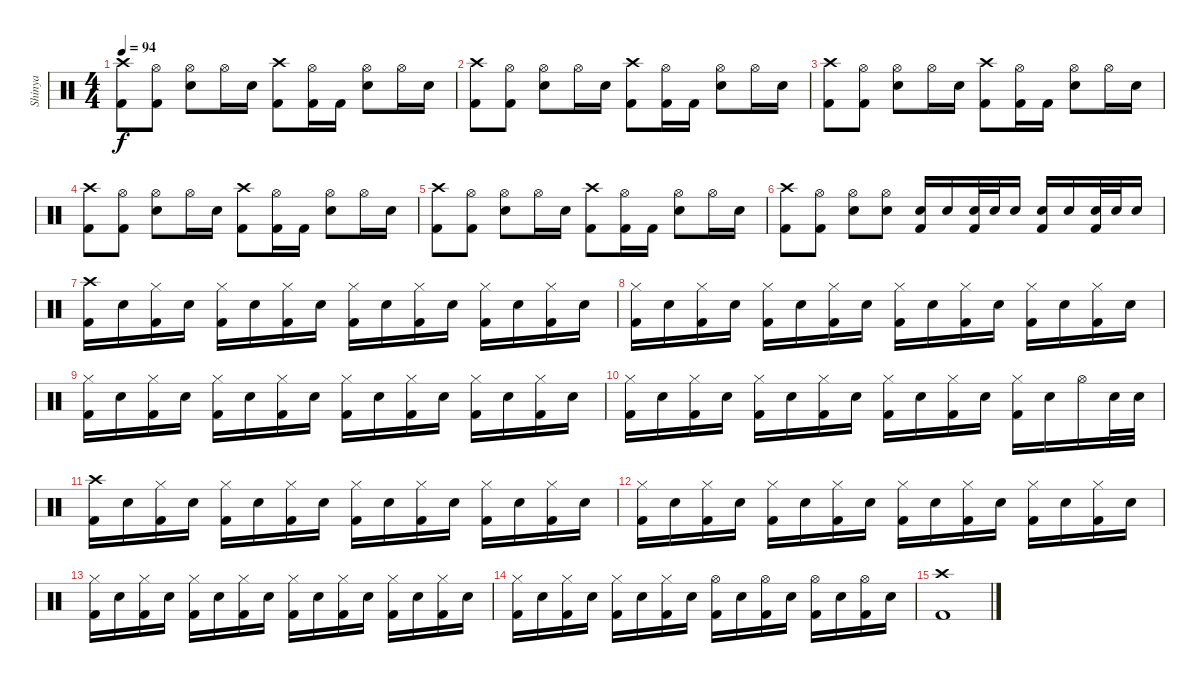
\track ("Shinya" "Shinya") {instrument percussion}
\staff {score}
\articulation defaults
\ts (4 4)
\tempo 94
\clef neutral
\ks c
("Kick (hit) 2" "Crash high (hit)").8{dy f} ("Kick (hit) 2" "Hi-Hat (open)").8 ("Snare (hit) 2" "Hi-Hat (open)").8 "Hi-Hat (open)".16 "Snare (hit) 2".16 ("Crash high (hit)" "Kick (hit) 2").8 ("Hi-Hat (open)" "Kick (hit) 2").16 "Kick (hit) 2".16 ("Hi-Hat (open)" "Snare (hit) 2").8 "Hi-Hat (open)".16 "Snare (hit) 2".16 |
("Kick (hit) 2" "Crash high (hit)").8 ("Kick (hit) 2" "Hi-Hat (open)").8 ("Snare (hit) 2" "Hi-Hat (open)").8 "Hi-Hat (open)".16 "Snare (hit) 2".16 ("Crash high (hit)" "Kick (hit) 2").8 ("Hi-Hat (open)" "Kick (hit) 2").16 "Kick (hit) 2".16 ("Hi-Hat (open)" "Snare (hit) 2").8 "Hi-Hat (open)".16 "Snare (hit) 2".16 |
("Kick (hit) 2" "Crash high (hit)").8 ("Kick (hit) 2" "Hi-Hat (open)").8 ("Snare (hit) 2" "Hi-Hat (open)").8 "Hi-Hat (open)".16 "Snare (hit) 2".16 ("Crash high (hit)" "Kick (hit) 2").8 ("Hi-Hat (open)" "Kick (hit) 2").16 "Kick (hit) 2".16 ("Hi-Hat (open)" "Snare (hit) 2").8 "Hi-Hat (open)".16 "Snare (hit) 2".16 |
("Kick (hit) 2" "Crash high (hit)").8 ("Kick (hit) 2" "Hi-Hat (open)").8 ("Snare (hit) 2" "Hi-Hat (open)").8 "Hi-Hat (open)".16 "Snare (hit) 2".16 ("Crash high (hit)" "Kick (hit) 2").8 ("Hi-Hat (open)" "Kick (hit) 2").16 "Kick (hit) 2".16 ("Hi-Hat (open)" "Snare (hit) 2").8 "Hi-Hat (open)".16 "Snare (hit) 2".16 |
("Kick (hit) 2" "Crash high (hit)").8 ("Kick (hit) 2" "Hi-Hat (open)").8 ("Snare (hit) 2" "Hi-Hat (open)").8 "Hi-Hat (open)".16 "Snare (hit) 2".16 ("Crash high (hit)" "Kick (hit) 2").8 ("Hi-Hat (open)" "Kick (hit) 2").16 "Kick (hit) 2".16 ("Hi-Hat (open)" "Snare (hit) 2").8 "Hi-Hat (open)".16 "Snare (hit) 2".16 |
("Kick (hit) 2" "Crash high (hit)").8 ("Kick (hit) 2" "Hi-Hat (open)").8 ("Snare (hit) 2" "Hi-Hat (open)").8 ("Hi-Hat (open)" "Snare (hit) 2").8 ("Snare (hit) 2" "Kick (hit) 2").16 "Snare (hit) 2".16 ("Snare (hit) 2" "Kick (hit) 2").32 "Snare (hit) 2".32 "Snare (hit) 2".16 ("Snare (hit) 2" "Kick (hit) 2").16 "Snare (hit) 2".16 ("Snare (hit) 2" "Kick (hit) 2").32 "Snare (hit) 2".32 "Snare (hit) 2".16 |
("Crash high (hit)" "Kick (hit) 2").16 "Snare (hit) 2".16 ("Hi-Hat (closed)" "Kick (hit) 2").16 "Snare (hit) 2".16 ("Hi-Hat (closed)" "Kick (hit) 2").16 "Snare (hit) 2".16 ("Hi-Hat (closed)" "Kick (hit) 2").16 "Snare (hit) 2".16 ("Hi-Hat (closed)" "Kick (hit) 2").16 "Snare (hit) 2".16 ("Hi-Hat (closed)" "Kick (hit) 2").16 "Snare (hit) 2".16 ("Hi-Hat (closed)" "Kick (hit) 2").16 "Snare (hit) 2".16 ("Hi-Hat (closed)" "Kick (hit) 2").16 "Snare (hit) 2".16 |
("Hi-Hat (closed)" "Kick (hit) 2").16 "Snare (hit) 2".16 ("Hi-Hat (closed)" "Kick (hit) 2").16 "Snare (hit) 2".16 ("Hi-Hat (closed)" "Kick (hit) 2").16 "Snare (hit) 2".16 ("Hi-Hat (closed)" "Kick (hit) 2").16 "Snare (hit) 2".16 ("Hi-Hat (closed)" "Kick (hit) 2").16 "Snare (hit) 2".16 ("Hi-Hat (closed)" "Kick (hit) 2").16 "Snare (hit) 2".16 ("Hi-Hat (closed)" "Kick (hit) 2").16 "Snare (hit) 2".16 ("Hi-Hat (closed)" "Kick (hit) 2").16 "Snare (hit) 2".16 |
("Hi-Hat (closed)" "Kick (hit) 2").16 "Snare (hit) 2".16 ("Hi-Hat (closed)" "Kick (hit) 2").16 "Snare (hit) 2".16 ("Hi-Hat (closed)" "Kick (hit) 2").16 "Snare (hit) 2".16 ("Hi-Hat (closed)" "Kick (hit) 2").16 "Snare (hit) 2".16 ("Hi-Hat (closed)" "Kick (hit) 2").16 "Snare (hit) 2".16 ("Hi-Hat (closed)" "Kick (hit) 2").16 "Snare (hit) 2".16 ("Hi-Hat (closed)" "Kick (hit) 2").16 "Snare (hit) 2".16 ("Hi-Hat (closed)" "Kick (hit) 2").16 "Snare (hit) 2".16 |
("Hi-Hat (closed)" "Kick (hit) 2").16 "Snare (hit) 2".16 ("Hi-Hat (closed)" "Kick (hit) 2").16 "Snare (hit) 2".16 ("Hi-Hat (closed)" "Kick (hit) 2").16 "Snare (hit) 2".16 ("Hi-Hat (closed)" "Kick (hit) 2").16 "Snare (hit) 2".16 ("Hi-Hat (closed)" "Kick (hit) 2").16 "Snare (hit) 2".16 ("Hi-Hat (closed)" "Kick (hit) 2").16 "Snare (hit) 2".16 ("Hi-Hat (closed)" "Kick (hit) 2").16 "Snare (hit) 2".16 "Hi-Hat (open)".16 "Snare (hit) 2".32 "Snare (hit) 2".32 |
("Crash high (hit)" "Kick (hit) 2").16 "Snare (hit) 2".16 ("Hi-Hat (closed)" "Kick (hit) 2").16 "Snare (hit) 2".16 ("Hi-Hat (closed)" "Kick (hit) 2").16 "Snare (hit) 2".16 ("Hi-Hat (closed)" "Kick (hit) 2").16 "Snare (hit) 2".16 ("Hi-Hat (closed)" "Kick (hit) 2").16 "Snare (hit) 2".16 ("Hi-Hat (closed)" "Kick (hit) 2").16 "Snare (hit) 2".16 ("Hi-Hat (closed)" "Kick (hit) 2").16 "Snare (hit) 2".16 ("Hi-Hat (closed)" "Kick (hit) 2").16 "Snare (hit) 2".16 |
("Hi-Hat (closed)" "Kick (hit) 2").16 "Snare (hit) 2".16 ("Hi-Hat (closed)" "Kick (hit) 2").16 "Snare (hit) 2".16 ("Hi-Hat (closed)" "Kick (hit) 2").16 "Snare (hit) 2".16 ("Hi-Hat (closed)" "Kick (hit) 2").16 "Snare (hit) 2".16 ("Hi-Hat (closed)" "Kick (hit) 2").16 "Snare (hit) 2".16 ("Hi-Hat (closed)" "Kick (hit) 2").16 "Snare (hit) 2".16 ("Hi-Hat (closed)" "Kick (hit) 2").16 "Snare (hit) 2".16 ("Hi-Hat (closed)" "Kick (hit) 2").16 "Snare (hit) 2".16 |
("Hi-Hat (closed)" "Kick (hit) 2").16 "Snare (hit) 2".16 ("Hi-Hat (closed)" "Kick (hit) 2").16 "Snare (hit) 2".16 ("Hi-Hat (closed)" "Kick (hit) 2").16 "Snare (hit) 2".16 ("Hi-Hat (closed)" "Kick (hit) 2").16 "Snare (hit) 2".16 ("Hi-Hat (closed)" "Kick (hit) 2").16 "Snare (hit) 2".16 ("Hi-Hat (closed)" "Kick (hit) 2").16 "Snare (hit) 2".16 ("Hi-Hat (closed)" "Kick (hit) 2").16 "Snare (hit) 2".16 ("Hi-Hat (closed)" "Kick (hit) 2").16 "Snare (hit) 2".16 |
("Hi-Hat (closed)" "Kick (hit) 2").16 "Snare (hit) 2".16 ("Hi-Hat (closed)" "Kick (hit) 2").16 "Snare (hit) 2".16 ("Hi-Hat (closed)" "Kick (hit) 2").16 "Snare (hit) 2".16 ("Hi-Hat (closed)" "Kick (hit) 2").16 "Snare (hit) 2".16 ("Hi-Hat (open)" "Kick (hit) 2").16 "Snare (hit) 2".16 ("Hi-Hat (open)" "Kick (hit) 2").16 "Snare (hit) 2".16 ("Hi-Hat (open)" "Kick (hit) 2").16 "Snare (hit) 2".16 ("Hi-Hat (open)" "Kick (hit) 2").16 "Snare (hit) 2".16 |
("Crash high (hit)" "Kick (hit) 2").1
